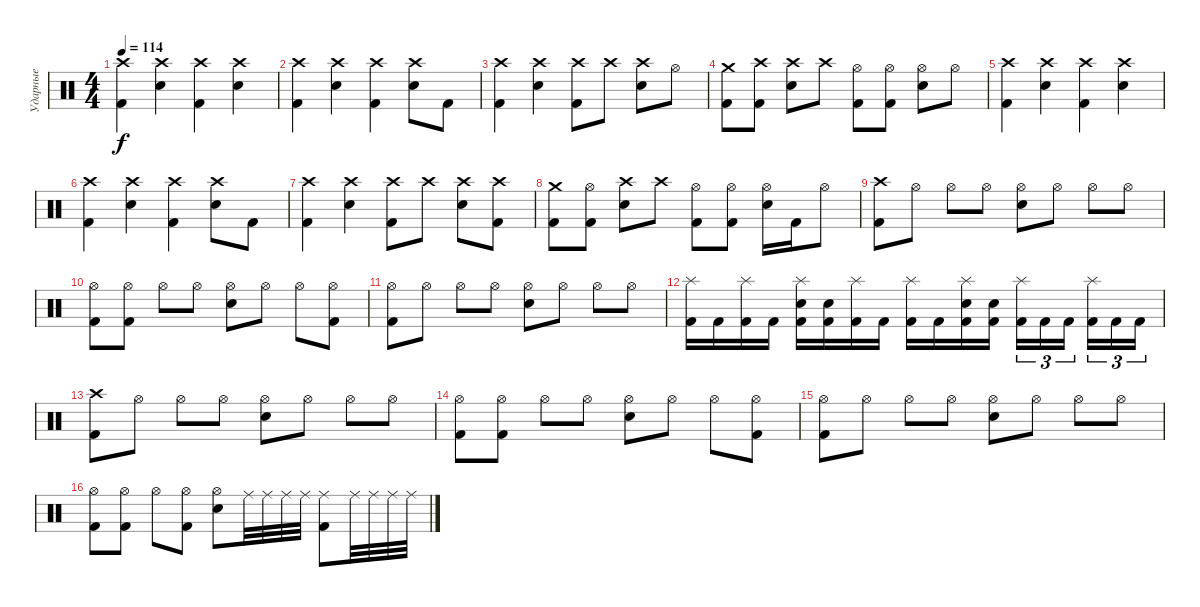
\track ("Ударные" "Ударные") {instrument percussion}
\staff {score}
\articulation defaults
\ts (4 4)
\tempo 114
\clef neutral
\ks c
("Crash high (hit)" "Kick (hit) 2").4{dy f} ("Crash high (hit)" "Electric Snare (hit)").4 ("Crash high (hit)" "Kick (hit) 2").4 ("Crash high (hit)" "Electric Snare (hit)").4 |
("Crash high (hit)" "Kick (hit) 2").4 ("Crash high (hit)" "Electric Snare (hit)").4 ("Crash high (hit)" "Kick (hit) 2").4 ("Crash high (hit)" "Electric Snare (hit)").8 "Kick (hit) 2".8 |
("Crash high (hit)" "Kick (hit) 2").4 ("Crash high (hit)" "Electric Snare (hit)").4 ("Crash high (hit)" "Kick (hit) 2").8 "Crash high (hit)".8 ("Crash high (hit)" "Electric Snare (hit)").8 "Hi-Hat (open)".8 |
("Crash medium (hit)" "Kick (hit) 2").8 ("Crash high (hit)" "Kick (hit) 2").8 ("Crash high (hit)" "Electric Snare (hit)").8 "Crash high (hit)".8 ("Hi-Hat (open)" "Kick (hit) 2").8 ("Hi-Hat (open)" "Kick (hit) 2").8 ("Hi-Hat (open)" "Electric Snare (hit)").8 "Hi-Hat (open)".8 |
("Crash high (hit)" "Kick (hit) 2").4 ("Crash high (hit)" "Electric Snare (hit)").4 ("Crash high (hit)" "Kick (hit) 2").4 ("Crash high (hit)" "Electric Snare (hit)").4 |
("Crash high (hit)" "Kick (hit) 2").4 ("Crash high (hit)" "Electric Snare (hit)").4 ("Crash high (hit)" "Kick (hit) 2").4 ("Crash high (hit)" "Electric Snare (hit)").8 "Kick (hit) 2".8 |
("Crash high (hit)" "Kick (hit) 2").4 ("Crash high (hit)" "Electric Snare (hit)").4 ("Crash high (hit)" "Kick (hit) 2").8 "Crash high (hit)".8 ("Crash high (hit)" "Electric Snare (hit)").8 ("Crash high (hit)" "Kick (hit) 2").8 |
("Crash medium (hit)" "Kick (hit) 2").8 ("Hi-Hat (open)" "Kick (hit) 2").8 ("Crash high (hit)" "Electric Snare (hit)").8 "Crash high (hit)".8 ("Hi-Hat (open)" "Kick (hit) 2").8 ("Hi-Hat (open)" "Kick (hit) 2").8 ("Hi-Hat (open)" "Electric Snare (hit)").16 "Kick (hit) 2".16 "Hi-Hat (open)".8 |
("Crash high (hit)" "Kick (hit) 2").8 "Hi-Hat (open)".8 "Hi-Hat (open)".8 "Hi-Hat (open)".8 ("Hi-Hat (open)" "Electric Snare (hit)").8 "Hi-Hat (open)".8 "Hi-Hat (open)".8 "Hi-Hat (open)".8 |
("Hi-Hat (open)" "Kick (hit) 2").8 ("Hi-Hat (open)" "Kick (hit) 2").8 "Hi-Hat (open)".8 "Hi-Hat (open)".8 ("Hi-Hat (open)" "Electric Snare (hit)").8 "Hi-Hat (open)".8 "Hi-Hat (open)".8 ("Hi-Hat (open)" "Kick (hit) 2").8 |
("Hi-Hat (open)" "Kick (hit) 2").8 "Hi-Hat (open)".8 "Hi-Hat (open)".8 "Hi-Hat (open)".8 ("Hi-Hat (open)" "Electric Snare (hit)").8 "Hi-Hat (open)".8 "Hi-Hat (open)".8 "Hi-Hat (open)".8 |
("Splash (hit)" "Kick (hit) 2").16 "Kick (hit) 2".16 ("Splash (hit)" "Kick (hit) 2").16 "Kick (hit) 2".16 ("Splash (hit)" "Electric Snare (hit)" "Kick (hit) 2").16 ("Electric Snare (hit)" "Kick (hit) 2").16 ("Splash (hit)" "Kick (hit) 2").16 "Kick (hit) 2".16 ("Splash (hit)" "Kick (hit) 2").16 "Kick (hit) 2".16 ("Splash (hit)" "Electric Snare (hit)" "Kick (hit) 2").16 ("Electric Snare (hit)" "Kick (hit) 2").16 ("Splash (hit)" "Kick (hit) 2").16{tu (3 2)} "Kick (hit) 2".16{tu (3 2)} "Kick (hit) 2".16{tu (3 2) beam splitsecondary} ("Splash (hit)" "Kick (hit) 2").16{tu (3 2)} "Kick (hit) 2".16{tu (3 2)} "Kick (hit) 2".16{tu (3 2)} |
("Crash high (hit)" "Kick (hit) 2").8 "Hi-Hat (open)".8 "Hi-Hat (open)".8 "Hi-Hat (open)".8 ("Hi-Hat (open)" "Electric Snare (hit)").8 "Hi-Hat (open)".8 "Hi-Hat (open)".8 "Hi-Hat (open)".8 |
("Hi-Hat (open)" "Kick (hit) 2").8 ("Hi-Hat (open)" "Kick (hit) 2").8 "Hi-Hat (open)".8 "Hi-Hat (open)".8 ("Hi-Hat (open)" "Electric Snare (hit)").8 "Hi-Hat (open)".8 "Hi-Hat (open)".8 ("Hi-Hat (open)" "Kick (hit) 2").8 |
("Hi-Hat (open)" "Kick (hit) 2").8 "Hi-Hat (open)".8 "Hi-Hat (open)".8 "Hi-Hat (open)".8 ("Hi-Hat (open)" "Electric Snare (hit)").8 "Hi-Hat (open)".8 "Hi-Hat (open)".8 "Hi-Hat (open)".8 |
("Hi-Hat (open)" "Kick (hit) 2").8 ("Hi-Hat (open)" "Kick (hit) 2").8 "Hi-Hat (open)".8 ("Hi-Hat (open)" "Kick (hit) 2").8 ("Hi-Hat (open)" "Electric Snare (hit)").8 "Ride (middle)".32 "Ride (middle)".32 "Ride (middle)".32 "Ride (middle)".32 ("Ride (middle)" "Kick (hit) 2").8 "Ride (middle)".32 "Ride (middle)".32 "Ride (middle)".32 "Ride (middle)".32
